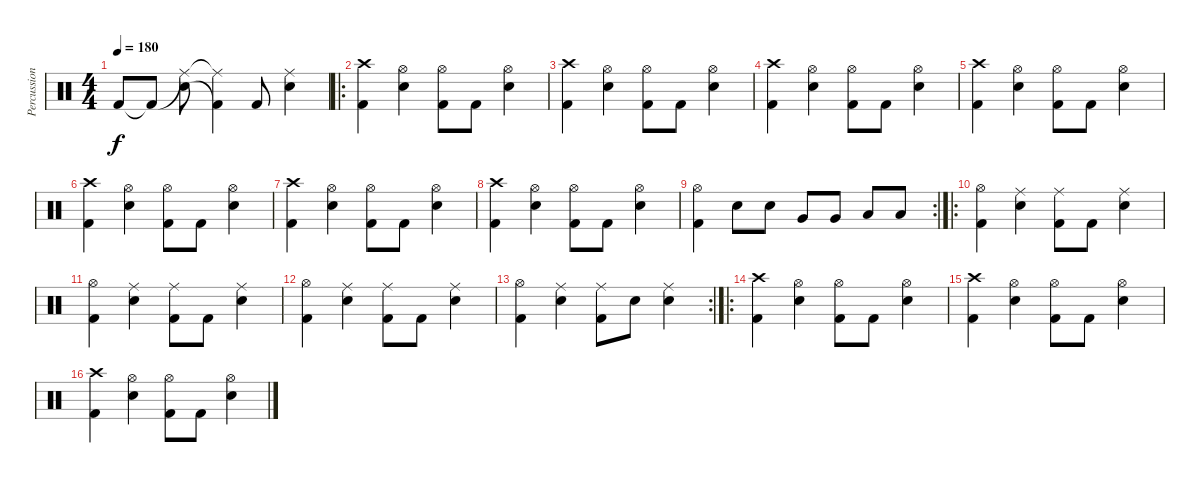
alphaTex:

\track ("Percussion" "Percussion") {instrument percussion}
\staff {score}
\articulation defaults
\ts (4 4)
\tempo 180
\clef neutral
\ks c "Kick (hit) 2".8{dy f} "Kick (hit) 2"{t}.8
("Ride (middle)"{t} "Electric Snare (hit)"{t}).8 ("Ride (middle)"{t} "Kick (hit) 2"{t}).4 "Kick (hit) 2".8 ("Ride (middle)" "Electric Snare (hit)").4 |
\ro
("Crash high (hit)" "Kick (hit) 2").4 ("Hi-Hat (open)" "Electric Snare (hit)").4 ("Hi-Hat (open)" "Kick (hit) 2").8 "Kick (hit) 2".8 ("Hi-Hat (open)" "Electric Snare (hit)").4 |
("Crash high (hit)" "Kick (hit) 2").4 ("Hi-Hat (open)" "Electric Snare (hit)").4 ("Hi-Hat (open)" "Kick (hit) 2").8 "Kick (hit) 2".8 ("Hi-Hat (open)" "Electric Snare (hit)").4 |
("Crash high (hit)" "Kick (hit) 2").4 ("Hi-Hat (open)" "Electric Snare (hit)").4 ("Hi-Hat (open)" "Kick (hit) 2").8 "Kick (hit) 2".8 ("Hi-Hat (open)" "Electric Snare (hit)").4 |
("Crash high (hit)" "Kick (hit) 2").4 ("Hi-Hat (open)" "Electric Snare (hit)").4 ("Hi-Hat (open)" "Kick (hit) 2").8 "Kick (hit) 2".8 ("Hi-Hat (open)" "Electric Snare (hit)").4 |
("Crash high (hit)" "Kick (hit) 2").4 ("Hi-Hat (open)" "Electric Snare (hit)").4 ("Hi-Hat (open)" "Kick (hit) 2").8 "Kick (hit) 2".8 ("Hi-Hat (open)" "Electric Snare (hit)").4 |
("Crash high (hit)" "Kick (hit) 2").4 ("Hi-Hat (open)" "Electric Snare (hit)").4 ("Hi-Hat (open)" "Kick (hit) 2").8 "Kick (hit) 2".8 ("Hi-Hat (open)" "Electric Snare (hit)").4 |
("Crash high (hit)" "Kick (hit) 2").4 ("Hi-Hat (open)" "Electric Snare (hit)").4 ("Hi-Hat (open)" "Kick (hit) 2").8 "Kick (hit) 2".8 ("Hi-Hat (open)" "Electric Snare (hit)").4 |
\rc 2
("Hi-Hat (open)" "Kick (hit) 2").4 "Electric Snare (hit)".8 "Electric Snare (hit)".8 "Very Low Tom (hit)".8 "Very Low Tom (hit)".8 "Low Floor Tom (hit)".8 "Low Floor Tom (hit)".8 |
\ro
("Hi-Hat (open)" "Kick (hit) 2").4 ("Ride (middle)" "Electric Snare (hit)").4 ("Ride (middle)" "Kick (hit) 2").8 "Kick (hit) 2".8 ("Ride (middle)" "Electric Snare (hit)").4 |
("Hi-Hat (open)" "Kick (hit) 2").4 ("Ride (middle)" "Electric Snare (hit)").4 ("Ride (middle)" "Kick (hit) 2").8 "Kick (hit) 2".8 ("Ride (middle)" "Electric Snare (hit)").4 |
("Hi-Hat (open)" "Kick (hit) 2").4 ("Ride (middle)" "Electric Snare (hit)").4 ("Ride (middle)" "Kick (hit) 2").8 "Kick (hit) 2".8 ("Ride (middle)" "Electric Snare (hit)").4 |
\rc 2
("Hi-Hat (open)" "Kick (hit) 2").4 ("Ride (middle)" "Electric Snare (hit)").4 ("Ride (middle)" "Kick (hit) 2").8 "Electric Snare (hit)".8 ("Ride (middle)" "Electric Snare (hit)").4 |
\ro
("Crash high (hit)" "Kick (hit) 2").4 ("Hi-Hat (open)" "Electric Snare (hit)").4 ("Hi-Hat (open)" "Kick (hit) 2").8 "Kick (hit) 2".8 ("Hi-Hat (open)" "Electric Snare (hit)").4 |
("Crash high (hit)" "Kick (hit) 2").4 ("Hi-Hat (open)" "Electric Snare (hit)").4 ("Hi-Hat (open)" "Kick (hit) 2").8 "Kick (hit) 2".8 ("Hi-Hat (open)" "Electric Snare (hit)").4 |
("Crash high (hit)" "Kick (hit) 2").4 ("Hi-Hat (open)" "Electric Snare (hit)").4 ("Hi-Hat (open)" "Kick (hit) 2").8 "Kick (hit) 2".8 ("Hi-Hat (open)" "Electric Snare (hit)").4
